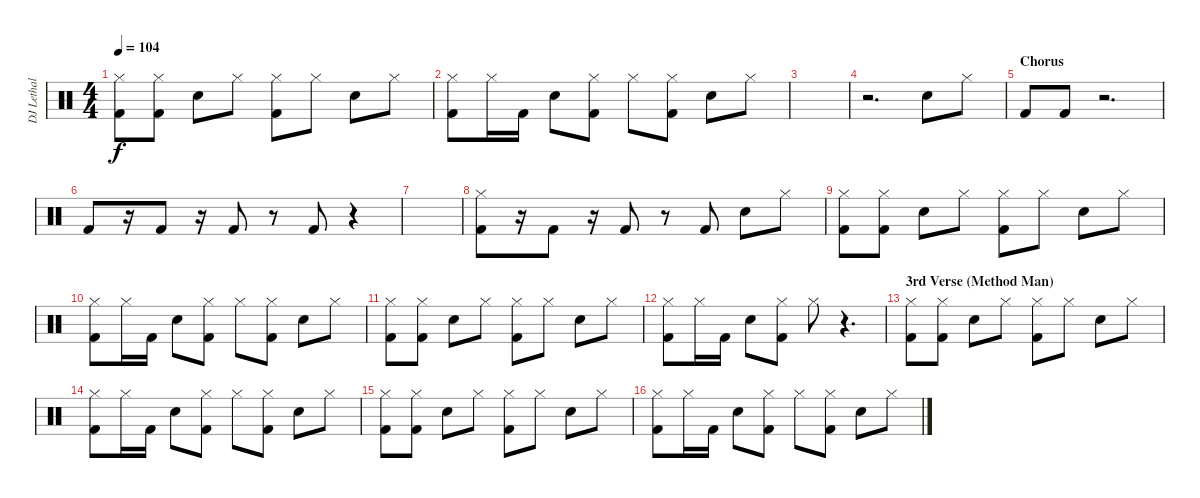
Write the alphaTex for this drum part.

\track ("DJ Lethal - Sample Drums" "DJ Lethal ") {instrument percussion}
\staff {score}
\articulation defaults
\ts (4 4)
\tempo 104
\clef neutral
\ks c
("Hi-Hat (closed)" "Kick (hit) 2").8{dy f} ("Hi-Hat (closed)" "Kick (hit) 2").8 "Electric Snare (hit)".8 "Hi-Hat (closed)".8 ("Hi-Hat (closed)" "Kick (hit) 2").8 "Hi-Hat (closed)".8 "Electric Snare (hit)".8 "Hi-Hat (closed)".8 |
("Hi-Hat (closed)" "Kick (hit) 2").8 "Hi-Hat (closed)".16 "Kick (hit) 2".16 "Electric Snare (hit)".8 ("Hi-Hat (closed)" "Kick (hit) 2").8 "Hi-Hat (closed)".8 ("Hi-Hat (closed)" "Kick (hit) 2").8 "Electric Snare (hit)".8 "Hi-Hat (closed)".8 |
|
r.2{d} "Electric Snare (hit)".8 "Hi-Hat (closed)".8 |
\section ("" "Chorus")
"Kick (hit) 2".8 "Kick (hit) 2".8 r.2{d} |
"Kick (hit) 2".8 r.16 "Kick (hit) 2".8 r.16 "Kick (hit) 2".8 r.8 "Kick (hit) 2".8 r.4 |
|
("Hi-Hat (closed)" "Kick (hit) 2").8 r.16 "Kick (hit) 2".8 r.16 "Kick (hit) 2".8 r.8 "Kick (hit) 2".8 "Electric Snare (hit)".8 "Hi-Hat (closed)".8 |
("Hi-Hat (closed)" "Kick (hit) 2").8 ("Hi-Hat (closed)" "Kick (hit) 2").8 "Electric Snare (hit)".8 "Hi-Hat (closed)".8 ("Hi-Hat (closed)" "Kick (hit) 2").8 "Hi-Hat (closed)".8 "Electric Snare (hit)".8 "Hi-Hat (closed)".8 |
("Hi-Hat (closed)" "Kick (hit) 2").8 "Hi-Hat (closed)".16 "Kick (hit) 2".16 "Electric Snare (hit)".8 ("Hi-Hat (closed)" "Kick (hit) 2").8 "Hi-Hat (closed)".8 ("Hi-Hat (closed)" "Kick (hit) 2").8 "Electric Snare (hit)".8 "Hi-Hat (closed)".8 |
("Hi-Hat (closed)" "Kick (hit) 2").8 ("Hi-Hat (closed)" "Kick (hit) 2").8 "Electric Snare (hit)".8 "Hi-Hat (closed)".8 ("Hi-Hat (closed)" "Kick (hit) 2").8 "Hi-Hat (closed)".8 "Electric Snare (hit)".8 "Hi-Hat (closed)".8 |
("Hi-Hat (closed)" "Kick (hit) 2").8 "Hi-Hat (closed)".16 "Kick (hit) 2".16 "Electric Snare (hit)".8 ("Hi-Hat (closed)" "Kick (hit) 2").8 "Hi-Hat (closed)".8 r.4{d} |
\section ("" "3rd Verse (Method Man)")
("Hi-Hat (closed)" "Kick (hit) 2").8 ("Hi-Hat (closed)" "Kick (hit) 2").8 "Electric Snare (hit)".8 "Hi-Hat (closed)".8 ("Hi-Hat (closed)" "Kick (hit) 2").8 "Hi-Hat (closed)".8 "Electric Snare (hit)".8 "Hi-Hat (closed)".8 |
("Hi-Hat (closed)" "Kick (hit) 2").8 "Hi-Hat (closed)".16 "Kick (hit) 2".16 "Electric Snare (hit)".8 ("Hi-Hat (closed)" "Kick (hit) 2").8 "Hi-Hat (closed)".8 ("Hi-Hat (closed)" "Kick (hit) 2").8 "Electric Snare (hit)".8 "Hi-Hat (closed)".8 |
("Hi-Hat (closed)" "Kick (hit) 2").8 ("Hi-Hat (closed)" "Kick (hit) 2").8 "Electric Snare (hit)".8 "Hi-Hat (closed)".8 ("Hi-Hat (closed)" "Kick (hit) 2").8 "Hi-Hat (closed)".8 "Electric Snare (hit)".8 "Hi-Hat (closed)".8 |
("Hi-Hat (closed)" "Kick (hit) 2").8 "Hi-Hat (closed)".16 "Kick (hit) 2".16 "Electric Snare (hit)".8 ("Hi-Hat (closed)" "Kick (hit) 2").8 "Hi-Hat (closed)".8 ("Hi-Hat (closed)" "Kick (hit) 2").8 "Electric Snare (hit)".8 "Hi-Hat (closed)".8
